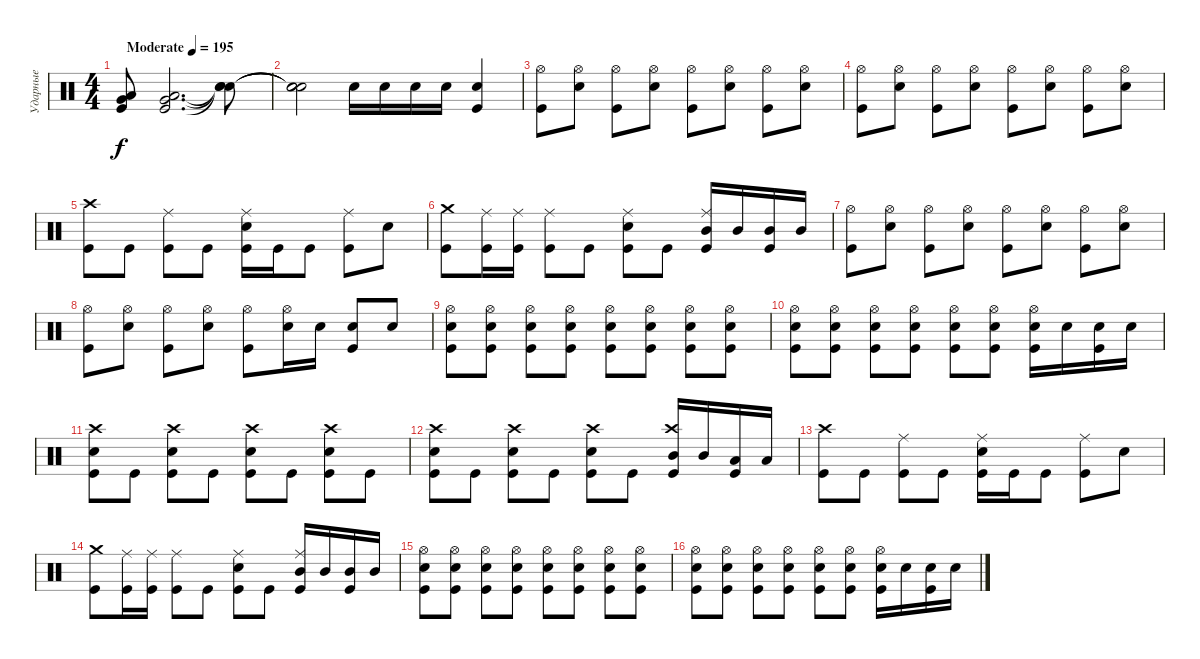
\track ("Ударные" "Ударные") {instrument percussion}
\staff {score}
\articulation defaults
\ts (4 4)
\tempo (195 "Moderate")
\clef neutral
\ks c
("Low Floor Tom (hit)" "Very Low Tom (hit)" "Kick (hit)").8{dy f} ("Low Floor Tom (hit)" "Very Low Tom (hit)" "Kick (hit)").2{d} ("Snare (hit)"{t} "Snare (hit)"{t} "Snare (hit)"{t}).8 |
("Snare (hit)"{t} "Snare (hit)"{t} "Snare (hit)"{t}).2 "Snare (hit) 2".16 "Snare (hit) 2".16 "Snare (hit) 2".16 "Snare (hit) 2".16 ("Snare (hit) 2" "Kick (hit)").4 |
("Hi-Hat (open)" "Kick (hit)").8 ("Hi-Hat (open)" "Snare (hit) 2").8 ("Hi-Hat (open)" "Kick (hit)").8 ("Hi-Hat (open)" "Snare (hit) 2").8 ("Hi-Hat (open)" "Kick (hit)").8 ("Hi-Hat (open)" "Snare (hit) 2").8 ("Hi-Hat (open)" "Kick (hit)").8 ("Hi-Hat (open)" "Snare (hit) 2").8 |
("Hi-Hat (open)" "Kick (hit)").8 ("Hi-Hat (open)" "Snare (hit) 2").8 ("Hi-Hat (open)" "Kick (hit)").8 ("Hi-Hat (open)" "Snare (hit) 2").8 ("Hi-Hat (open)" "Kick (hit)").8 ("Hi-Hat (open)" "Snare (hit) 2").8 ("Hi-Hat (open)" "Kick (hit)").8 ("Hi-Hat (open)" "Snare (hit) 2").8 |
("Crash high (hit)" "Kick (hit)").8 "Kick (hit)".8 ("Ride (middle)" "Kick (hit)").8 "Kick (hit)".8 ("Ride (middle)" "Snare (hit) 2" "Kick (hit)").16 "Kick (hit)".16 "Kick (hit)".8 ("Ride (middle)" "Kick (hit)").8 "Snare (hit) 2".8 |
("Crash medium (hit)" "Kick (hit)").8 ("Ride (middle)" "Kick (hit)").16 ("Ride (middle)" "Kick (hit)").16 ("Ride (middle)" "Kick (hit)").8 "Kick (hit)".8 ("Ride (middle)" "Snare (hit) 2" "Kick (hit)").8 "Kick (hit)".8 ("Ride (middle)" "Mid Tom (hit)" "Kick (hit)").16 "Mid Tom (hit)".16 ("Mid Tom (hit)" "Kick (hit)").16 "Mid Tom (hit)".16 |
("Hi-Hat (open)" "Kick (hit)").8 ("Hi-Hat (open)" "Snare (hit) 2").8 ("Hi-Hat (open)" "Kick (hit)").8 ("Hi-Hat (open)" "Snare (hit) 2").8 ("Hi-Hat (open)" "Kick (hit)").8 ("Hi-Hat (open)" "Snare (hit) 2").8 ("Hi-Hat (open)" "Kick (hit)").8 ("Hi-Hat (open)" "Snare (hit) 2").8 |
("Hi-Hat (open)" "Kick (hit)").8 ("Hi-Hat (open)" "Snare (hit) 2").8 ("Hi-Hat (open)" "Kick (hit)").8 ("Hi-Hat (open)" "Snare (hit) 2").8 ("Hi-Hat (open)" "Kick (hit)").8 ("Hi-Hat (open)" "Snare (hit) 2").16 "Snare (hit) 2".16 ("Snare (hit) 2" "Kick (hit)").8 "Snare (hit) 2".8 |
("Hi-Hat (open)" "Snare (hit) 2" "Kick (hit)").8 ("Hi-Hat (open)" "Snare (hit) 2" "Kick (hit)").8 ("Hi-Hat (open)" "Snare (hit) 2" "Kick (hit)").8 ("Hi-Hat (open)" "Snare (hit) 2" "Kick (hit)").8 ("Hi-Hat (open)" "Snare (hit) 2" "Kick (hit)").8 ("Hi-Hat (open)" "Snare (hit) 2" "Kick (hit)").8 ("Hi-Hat (open)" "Snare (hit) 2" "Kick (hit)").8 ("Hi-Hat (open)" "Snare (hit) 2" "Kick (hit)").8 |
("Hi-Hat (open)" "Snare (hit) 2" "Kick (hit)").8 ("Hi-Hat (open)" "Snare (hit) 2" "Kick (hit)").8 ("Hi-Hat (open)" "Snare (hit) 2" "Kick (hit)").8 ("Hi-Hat (open)" "Snare (hit) 2" "Kick (hit)").8 ("Hi-Hat (open)" "Snare (hit) 2" "Kick (hit)").8 ("Hi-Hat (open)" "Snare (hit) 2" "Kick (hit)").8 ("Hi-Hat (open)" "Snare (hit) 2" "Kick (hit)").16 "Snare (hit) 2".16 ("Snare (hit) 2" "Kick (hit)").16 "Snare (hit) 2".16 |
("Crash high (hit)" "Snare (hit) 2" "Kick (hit)").8 "Kick (hit)".8 ("Crash high (hit)" "Snare (hit) 2" "Kick (hit)").8 "Kick (hit)".8 ("Crash high (hit)" "Snare (hit) 2" "Kick (hit)").8 "Kick (hit)".8 ("Crash high (hit)" "Snare (hit) 2" "Kick (hit)").8 "Kick (hit)".8 |
("Crash high (hit)" "Snare (hit) 2" "Kick (hit)").8 "Kick (hit)".8 ("Crash high (hit)" "Snare (hit) 2" "Kick (hit)").8 "Kick (hit)".8 ("Crash high (hit)" "Snare (hit) 2" "Kick (hit)").8 "Kick (hit)".8 ("Crash high (hit)" "Mid Tom (hit)" "Kick (hit)").16 "Mid Tom (hit)".16 ("Low Tom (hit)" "Kick (hit)").16 "Low Tom (hit)".16 |
("Crash high (hit)" "Kick (hit)").8 "Kick (hit)".8 ("Ride (middle)" "Kick (hit)").8 "Kick (hit)".8 ("Ride (middle)" "Snare (hit) 2" "Kick (hit)").16 "Kick (hit)".16 "Kick (hit)".8 ("Ride (middle)" "Kick (hit)").8 "Snare (hit) 2".8 |
("Crash medium (hit)" "Kick (hit)").8 ("Ride (middle)" "Kick (hit)").16 ("Ride (middle)" "Kick (hit)").16 ("Ride (middle)" "Kick (hit)").8 "Kick (hit)".8 ("Ride (middle)" "Snare (hit) 2" "Kick (hit)").8 "Kick (hit)".8 ("Ride (middle)" "Mid Tom (hit)" "Kick (hit)").16 "Mid Tom (hit)".16 ("Mid Tom (hit)" "Kick (hit)").16 "Mid Tom (hit)".16 |
("Hi-Hat (open)" "Snare (hit) 2" "Kick (hit)").8 ("Hi-Hat (open)" "Snare (hit) 2" "Kick (hit)").8 ("Hi-Hat (open)" "Snare (hit) 2" "Kick (hit)").8 ("Hi-Hat (open)" "Snare (hit) 2" "Kick (hit)").8 ("Hi-Hat (open)" "Snare (hit) 2" "Kick (hit)").8 ("Hi-Hat (open)" "Snare (hit) 2" "Kick (hit)").8 ("Hi-Hat (open)" "Snare (hit) 2" "Kick (hit)").8 ("Hi-Hat (open)" "Snare (hit) 2" "Kick (hit)").8 |
("Hi-Hat (open)" "Snare (hit) 2" "Kick (hit)").8 ("Hi-Hat (open)" "Snare (hit) 2" "Kick (hit)").8 ("Hi-Hat (open)" "Snare (hit) 2" "Kick (hit)").8 ("Hi-Hat (open)" "Snare (hit) 2" "Kick (hit)").8 ("Hi-Hat (open)" "Snare (hit) 2" "Kick (hit)").8 ("Hi-Hat (open)" "Snare (hit) 2" "Kick (hit)").8 ("Hi-Hat (open)" "Snare (hit) 2" "Kick (hit)").16 "Snare (hit) 2".16 ("Snare (hit) 2" "Kick (hit)").16 "Snare (hit) 2".16
